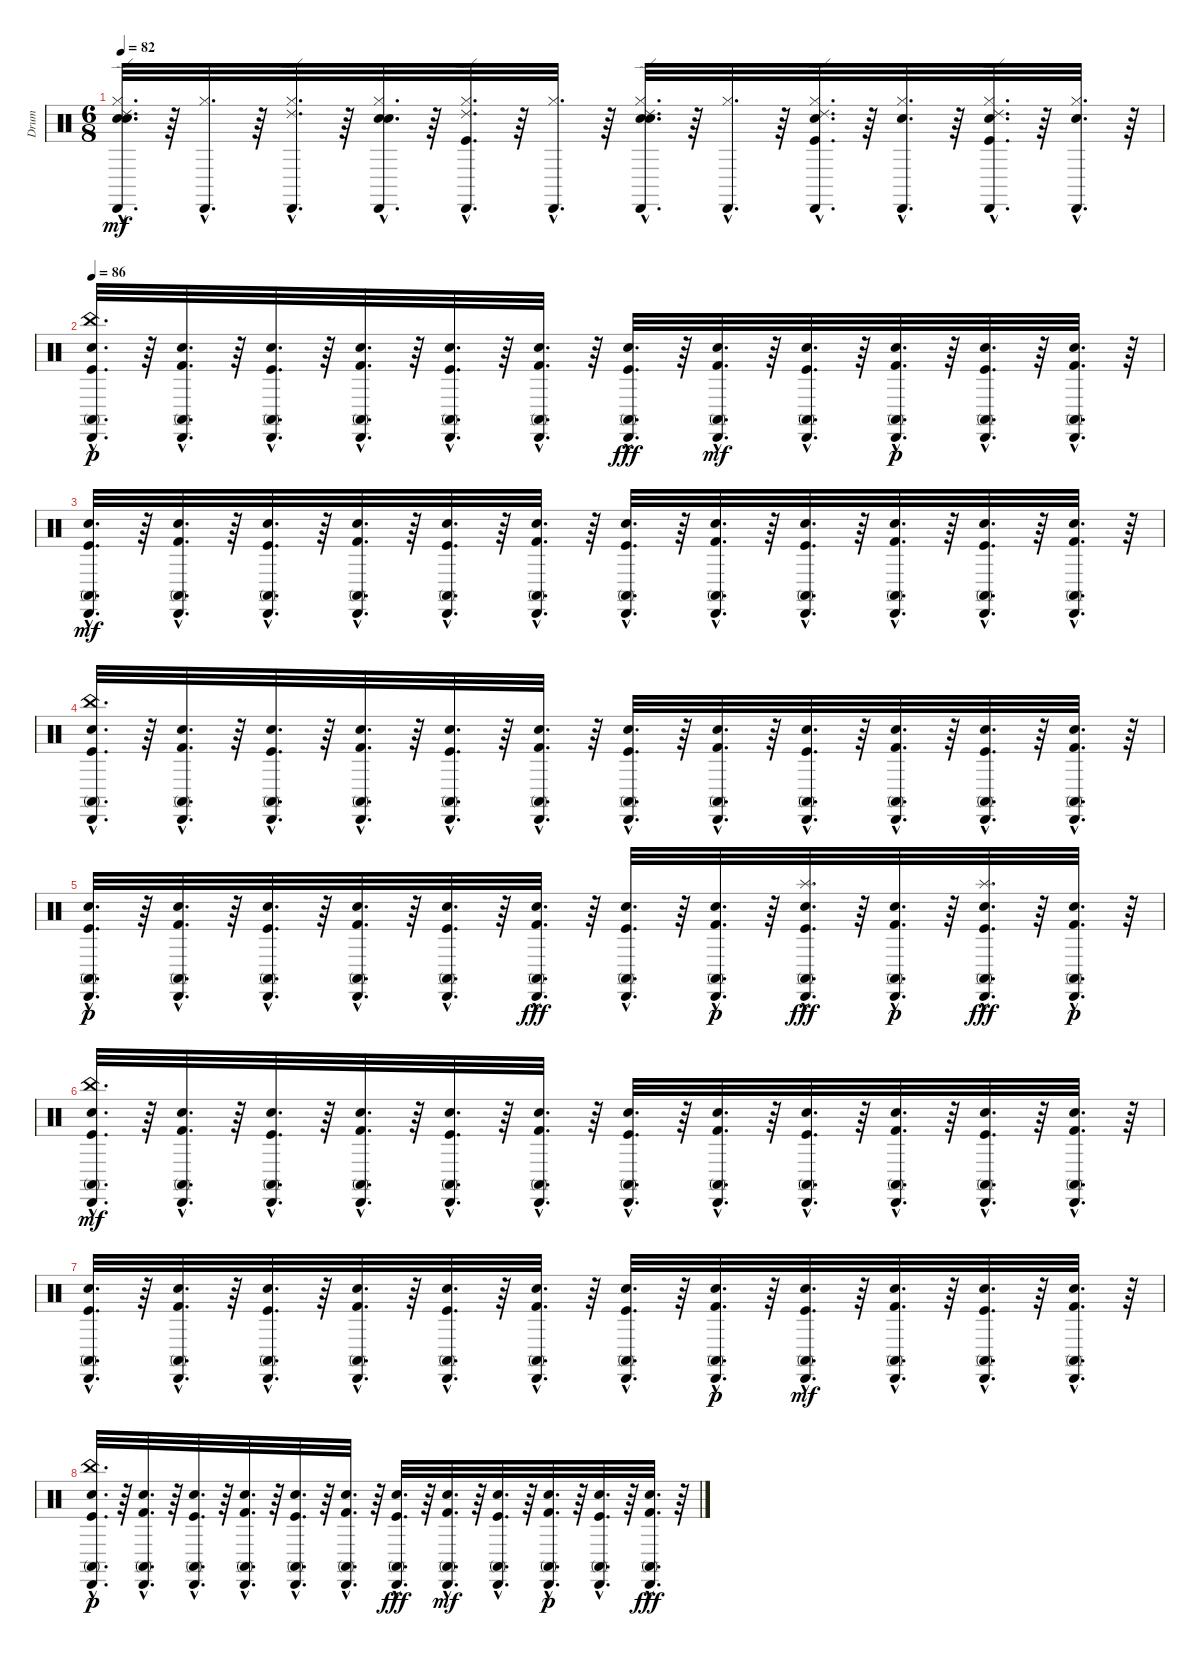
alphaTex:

\track ("Drum" "Drum") {instrument percussion}
\staff {score}
\articulation defaults
\ts (6 8)
\tempo 82
\clef neutral
\ks c
("Hi-Hat (closed)"{hac} "Snare (hit) 2"{hac} "Ride (edge) 2"{hac} "Cabasa (hit)"{hac} "Electric Snare (hit)"{hac}).32{d dy mf} r.64 ("Hi-Hat (closed)"{hac} "Cabasa (hit)"{hac}).32{d} r.64 ("Hi-Hat (closed)"{hac} "Ride (edge) 2"{hac} "Cabasa (hit)"{hac}).32{d} r.64 ("Snare (hit) 2"{hac} "Hi-Hat (closed)"{hac} "Cabasa (hit)"{hac} "Electric Snare (hit)"{hac}).32{d} r.64 ("Kick (hit)"{hac} "Hi-Hat (closed)"{hac} "Ride (edge) 2"{hac} "Cabasa (hit)"{hac}).32{d} r.64 ("Hi-Hat (closed)"{hac} "Cabasa (hit)"{hac}).32{d} r.64 ("Hi-Hat (closed)"{hac} "Snare (hit) 2"{hac} "Ride (edge) 2"{hac} "Cabasa (hit)"{hac} "Electric Snare (hit)"{hac}).32{d} r.64 ("Hi-Hat (closed)"{hac} "Cabasa (hit)"{hac}).32{d} r.64 ("Snare (hit) 2"{hac} "Hi-Hat (closed)"{hac} "Ride (edge) 2"{hac} "Cabasa (hit)"{hac} "Kick (hit)"{hac}).32{d} r.64 ("Snare (hit) 2"{hac} "Hi-Hat (closed)"{hac} "Cabasa (hit)"{hac}).32{d} r.64 ("Hi-Hat (closed)"{hac} "Kick (hit)"{hac} "Snare (hit) 2"{hac} "Ride (edge) 2"{hac} "Cabasa (hit)"{hac}).32{d} r.64 ("Hi-Hat (closed)"{hac} "Snare (hit) 2"{hac} "Cabasa (hit)"{hac}).32{d} r.64 |
\tempo 86
("Conga high (mute)"{hac} "Cabasa (hit)"{hac} "Kick (hit)"{hac} "China (hit)"{hac} "Electric Snare (hit)"{hac}).32{d dy p} r.64 ("Conga high (mute)"{hac} "Cabasa (hit)"{hac} "Kick (hit) 2"{hac} "Electric Snare (hit)"{hac}).32{d} r.64 ("Conga high (mute)"{hac} "Cabasa (hit)"{hac} "Kick (hit)"{hac} "Electric Snare (hit)"{hac}).32{d} r.64 ("Conga high (mute)"{hac} "Cabasa (hit)"{hac} "Kick (hit) 2"{hac} "Electric Snare (hit)"{hac}).32{d} r.64 ("Conga high (mute)"{hac} "Cabasa (hit)"{hac} "Kick (hit)"{hac} "Electric Snare (hit)"{hac}).32{d} r.64 ("Conga high (mute)"{hac} "Cabasa (hit)"{hac} "Kick (hit) 2"{hac} "Electric Snare (hit)"{hac}).32{d} r.64 ("Conga high (mute)"{hac} "Cabasa (hit)"{hac} "Kick (hit)"{hac} "Electric Snare (hit)"{hac}).32{d dy fff} r.64 ("Conga high (mute)"{hac} "Cabasa (hit)"{hac} "Kick (hit) 2"{hac} "Electric Snare (hit)"{hac}).32{d dy mf} r.64 ("Conga high (mute)"{hac} "Cabasa (hit)"{hac} "Kick (hit)"{hac} "Electric Snare (hit)"{hac}).32{d} r.64 ("Conga high (mute)"{hac} "Cabasa (hit)"{hac} "Kick (hit) 2"{hac} "Electric Snare (hit)"{hac}).32{d dy p} r.64 ("Conga high (mute)"{hac} "Cabasa (hit)"{hac} "Kick (hit)"{hac} "Electric Snare (hit)"{hac}).32{d} r.64 ("Conga high (mute)"{hac} "Cabasa (hit)"{hac} "Kick (hit) 2"{hac} "Electric Snare (hit)"{hac}).32{d} r.64 |
("Electric Snare (hit)"{hac} "Kick (hit)"{hac} "Cabasa (hit)"{hac} "Conga high (mute)"{hac}).32{d dy mf} r.64 ("Electric Snare (hit)"{hac} "Kick (hit) 2"{hac} "Cabasa (hit)"{hac} "Conga high (mute)"{hac}).32{d} r.64 ("Electric Snare (hit)"{hac} "Kick (hit)"{hac} "Cabasa (hit)"{hac} "Conga high (mute)"{hac}).32{d} r.64 ("Electric Snare (hit)"{hac} "Kick (hit) 2"{hac} "Cabasa (hit)"{hac} "Conga high (mute)"{hac}).32{d} r.64 ("Electric Snare (hit)"{hac} "Kick (hit)"{hac} "Cabasa (hit)"{hac} "Conga high (mute)"{hac}).32{d} r.64 ("Electric Snare (hit)"{hac} "Kick (hit) 2"{hac} "Cabasa (hit)"{hac} "Conga high (mute)"{hac}).32{d} r.64 ("Electric Snare (hit)"{hac} "Kick (hit)"{hac} "Cabasa (hit)"{hac} "Conga high (mute)"{hac}).32{d} r.64 ("Electric Snare (hit)"{hac} "Kick (hit) 2"{hac} "Cabasa (hit)"{hac} "Conga high (mute)"{hac}).32{d} r.64 ("Electric Snare (hit)"{hac} "Kick (hit)"{hac} "Cabasa (hit)"{hac} "Conga high (mute)"{hac}).32{d} r.64 ("Electric Snare (hit)"{hac} "Kick (hit) 2"{hac} "Cabasa (hit)"{hac} "Conga high (mute)"{hac}).32{d} r.64 ("Electric Snare (hit)"{hac} "Kick (hit)"{hac} "Cabasa (hit)"{hac} "Conga high (mute)"{hac}).32{d} r.64 ("Electric Snare (hit)"{hac} "Kick (hit) 2"{hac} "Cabasa (hit)"{hac} "Conga high (mute)"{hac}).32{d} r.64 |
("Electric Snare (hit)"{hac} "China (hit)"{hac} "Kick (hit)"{hac} "Cabasa (hit)"{hac} "Conga high (mute)"{hac}).32{d} r.64 ("Electric Snare (hit)"{hac} "Kick (hit) 2"{hac} "Cabasa (hit)"{hac} "Conga high (mute)"{hac}).32{d} r.64 ("Electric Snare (hit)"{hac} "Kick (hit)"{hac} "Cabasa (hit)"{hac} "Conga high (mute)"{hac}).32{d} r.64 ("Electric Snare (hit)"{hac} "Kick (hit) 2"{hac} "Cabasa (hit)"{hac} "Conga high (mute)"{hac}).32{d} r.64 ("Electric Snare (hit)"{hac} "Kick (hit)"{hac} "Cabasa (hit)"{hac} "Conga high (mute)"{hac}).32{d} r.64 ("Electric Snare (hit)"{hac} "Kick (hit) 2"{hac} "Cabasa (hit)"{hac} "Conga high (mute)"{hac}).32{d} r.64 ("Electric Snare (hit)"{hac} "Kick (hit)"{hac} "Cabasa (hit)"{hac} "Conga high (mute)"{hac}).32{d} r.64 ("Electric Snare (hit)"{hac} "Kick (hit) 2"{hac} "Cabasa (hit)"{hac} "Conga high (mute)"{hac}).32{d} r.64 ("Electric Snare (hit)"{hac} "Kick (hit)"{hac} "Cabasa (hit)"{hac} "Conga high (mute)"{hac}).32{d} r.64 ("Electric Snare (hit)"{hac} "Kick (hit) 2"{hac} "Cabasa (hit)"{hac} "Conga high (mute)"{hac}).32{d} r.64 ("Electric Snare (hit)"{hac} "Kick (hit)"{hac} "Cabasa (hit)"{hac} "Conga high (mute)"{hac}).32{d} r.64 ("Electric Snare (hit)"{hac} "Kick (hit) 2"{hac} "Cabasa (hit)"{hac} "Conga high (mute)"{hac}).32{d} r.64 |
("Conga high (mute)"{hac} "Cabasa (hit)"{hac} "Kick (hit)"{hac} "Electric Snare (hit)"{hac}).32{d dy p} r.64 ("Conga high (mute)"{hac} "Cabasa (hit)"{hac} "Kick (hit) 2"{hac} "Electric Snare (hit)"{hac}).32{d} r.64 ("Conga high (mute)"{hac} "Cabasa (hit)"{hac} "Kick (hit)"{hac} "Electric Snare (hit)"{hac}).32{d} r.64 ("Conga high (mute)"{hac} "Cabasa (hit)"{hac} "Kick (hit) 2"{hac} "Electric Snare (hit)"{hac}).32{d} r.64 ("Conga high (mute)"{hac} "Cabasa (hit)"{hac} "Kick (hit)"{hac} "Electric Snare (hit)"{hac}).32{d} r.64 ("Conga high (mute)"{hac} "Cabasa (hit)"{hac} "Kick (hit) 2"{hac} "Electric Snare (hit)"{hac}).32{d dy fff} r.64 ("Conga high (mute)"{hac} "Cabasa (hit)"{hac} "Kick (hit)"{hac} "Electric Snare (hit)"{hac}).32{d} r.64 ("Conga high (mute)"{hac} "Cabasa (hit)"{hac} "Kick (hit) 2"{hac} "Electric Snare (hit)"{hac}).32{d dy p} r.64 ("Conga high (mute)"{hac} "Cabasa (hit)"{hac} "Kick (hit)"{hac} "Electric Snare (hit)"{hac} "Splash (hit)"{hac}).32{d dy fff} r.64 ("Conga high (mute)"{hac} "Cabasa (hit)"{hac} "Kick (hit) 2"{hac} "Electric Snare (hit)"{hac}).32{d dy p} r.64 ("Conga high (mute)"{hac} "Cabasa (hit)"{hac} "Kick (hit)"{hac} "Electric Snare (hit)"{hac} "Splash (hit)"{hac}).32{d dy fff} r.64 ("Conga high (mute)"{hac} "Cabasa (hit)"{hac} "Kick (hit) 2"{hac} "Electric Snare (hit)"{hac}).32{d dy p} r.64 |
("Electric Snare (hit)"{hac} "China (hit)"{hac} "Kick (hit)"{hac} "Cabasa (hit)"{hac} "Conga high (mute)"{hac}).32{d dy mf} r.64 ("Electric Snare (hit)"{hac} "Kick (hit) 2"{hac} "Cabasa (hit)"{hac} "Conga high (mute)"{hac}).32{d} r.64 ("Electric Snare (hit)"{hac} "Kick (hit)"{hac} "Cabasa (hit)"{hac} "Conga high (mute)"{hac}).32{d} r.64 ("Electric Snare (hit)"{hac} "Kick (hit) 2"{hac} "Cabasa (hit)"{hac} "Conga high (mute)"{hac}).32{d} r.64 ("Electric Snare (hit)"{hac} "Kick (hit)"{hac} "Cabasa (hit)"{hac} "Conga high (mute)"{hac}).32{d} r.64 ("Electric Snare (hit)"{hac} "Kick (hit) 2"{hac} "Cabasa (hit)"{hac} "Conga high (mute)"{hac}).32{d} r.64 ("Electric Snare (hit)"{hac} "Kick (hit)"{hac} "Cabasa (hit)"{hac} "Conga high (mute)"{hac}).32{d} r.64 ("Electric Snare (hit)"{hac} "Kick (hit) 2"{hac} "Cabasa (hit)"{hac} "Conga high (mute)"{hac}).32{d} r.64 ("Electric Snare (hit)"{hac} "Kick (hit)"{hac} "Cabasa (hit)"{hac} "Conga high (mute)"{hac}).32{d} r.64 ("Electric Snare (hit)"{hac} "Kick (hit) 2"{hac} "Cabasa (hit)"{hac} "Conga high (mute)"{hac}).32{d} r.64 ("Electric Snare (hit)"{hac} "Kick (hit)"{hac} "Cabasa (hit)"{hac} "Conga high (mute)"{hac}).32{d} r.64 ("Electric Snare (hit)"{hac} "Kick (hit) 2"{hac} "Cabasa (hit)"{hac} "Conga high (mute)"{hac}).32{d} r.64 |
("Electric Snare (hit)"{hac} "Kick (hit)"{hac} "Conga high (mute)"{hac} "Cabasa (hit)"{hac}).32{d} r.64 ("Conga high (mute)"{hac} "Cabasa (hit)"{hac} "Electric Snare (hit)"{hac} "Kick (hit) 2"{hac}).32{d} r.64 ("Conga high (mute)"{hac} "Electric Snare (hit)"{hac} "Kick (hit)"{hac} "Cabasa (hit)"{hac}).32{d} r.64 ("Conga high (mute)"{hac} "Electric Snare (hit)"{hac} "Kick (hit) 2"{hac} "Cabasa (hit)"{hac}).32{d} r.64 ("Conga high (mute)"{hac} "Electric Snare (hit)"{hac} "Kick (hit)"{hac} "Cabasa (hit)"{hac}).32{d} r.64 ("Conga high (mute)"{hac} "Electric Snare (hit)"{hac} "Kick (hit) 2"{hac} "Cabasa (hit)"{hac}).32{d} r.64 ("Conga high (mute)"{hac} "Electric Snare (hit)"{hac} "Cabasa (hit)"{hac} "Kick (hit)"{hac}).32{d} r.64 ("Cabasa (hit)"{hac} "Kick (hit) 2"{hac} "Conga high (mute)"{hac} "Electric Snare (hit)"{hac}).32{d dy p} r.64 ("Electric Snare (hit)"{hac} "Conga high (mute)"{hac} "Cabasa (hit)"{hac} "Kick (hit)"{hac}).32{d dy mf} r.64 ("Conga high (mute)"{hac} "Cabasa (hit)"{hac} "Electric Snare (hit)"{hac} "Kick (hit) 2"{hac}).32{d} r.64 ("Electric Snare (hit)"{hac} "Kick (hit)"{hac} "Cabasa (hit)"{hac} "Conga high (mute)"{hac}).32{d} r.64 ("Conga high (mute)"{hac} "Cabasa (hit)"{hac} "Electric Snare (hit)"{hac} "Kick (hit) 2"{hac}).32{d} r.64 |
("Conga high (mute)"{hac} "Cabasa (hit)"{hac} "Kick (hit)"{hac} "China (hit)"{hac} "Electric Snare (hit)"{hac}).32{d dy p} r.64 ("Conga high (mute)"{hac} "Cabasa (hit)"{hac} "Kick (hit) 2"{hac} "Electric Snare (hit)"{hac}).32{d} r.64 ("Conga high (mute)"{hac} "Cabasa (hit)"{hac} "Kick (hit)"{hac} "Electric Snare (hit)"{hac}).32{d} r.64 ("Conga high (mute)"{hac} "Cabasa (hit)"{hac} "Kick (hit) 2"{hac} "Electric Snare (hit)"{hac}).32{d} r.64 ("Conga high (mute)"{hac} "Cabasa (hit)"{hac} "Kick (hit)"{hac} "Electric Snare (hit)"{hac}).32{d} r.64 ("Conga high (mute)"{hac} "Cabasa (hit)"{hac} "Kick (hit) 2"{hac} "Electric Snare (hit)"{hac}).32{d} r.64 ("Conga high (mute)"{hac} "Cabasa (hit)"{hac} "Kick (hit)"{hac} "Electric Snare (hit)"{hac}).32{d dy fff} r.64 ("Conga high (mute)"{hac} "Cabasa (hit)"{hac} "Kick (hit) 2"{hac} "Electric Snare (hit)"{hac}).32{d dy mf} r.64 ("Conga high (mute)"{hac} "Cabasa (hit)"{hac} "Kick (hit)"{hac} "Electric Snare (hit)"{hac}).32{d} r.64 ("Conga high (mute)"{hac} "Cabasa (hit)"{hac} "Kick (hit) 2"{hac} "Electric Snare (hit)"{hac}).32{d dy p} r.64 ("Conga high (mute)"{hac} "Cabasa (hit)"{hac} "Kick (hit)"{hac} "Electric Snare (hit)"{hac}).32{d} r.64 ("Conga high (mute)"{hac} "Cabasa (hit)"{hac} "Kick (hit) 2"{hac} "Electric Snare (hit)"{hac}).32{d dy fff} r.64
